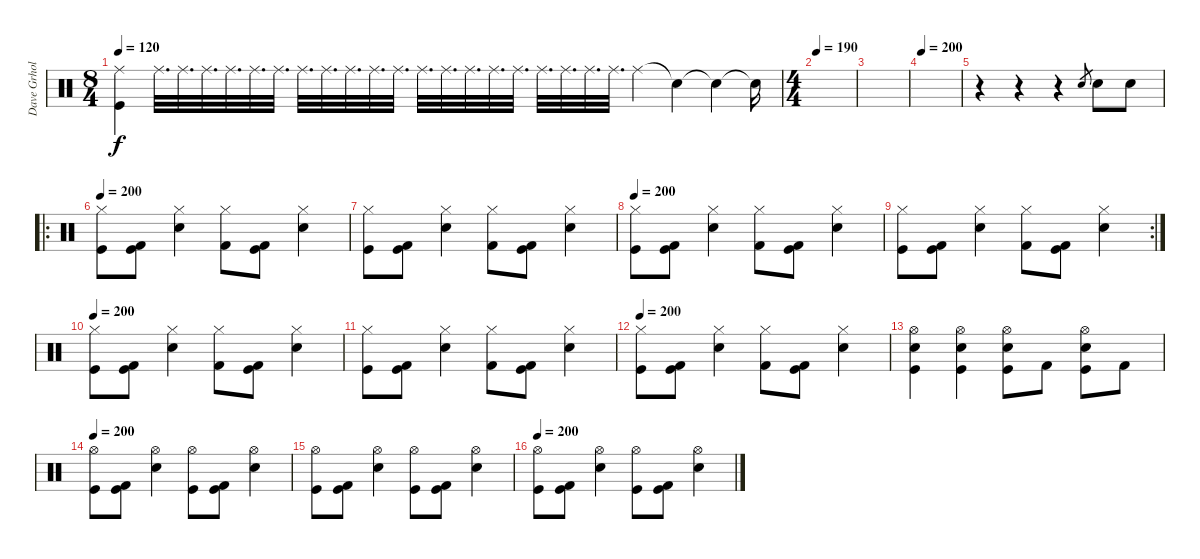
\track ("Dave Grhol" "Dave Grhol") {instrument percussion}
\staff {score}
\articulation defaults
\ts (8 4)
\tempo 120
\clef neutral
\ks c
("Ride (middle)" "Kick (hit)").4{dy f} "Ride (middle)".32{d} "Ride (middle)".32{d} "Ride (middle)".32{d} "Ride (middle)".32{d} "Ride (middle)".32{d} "Ride (middle)".32{d} "Ride (middle)".32{d} "Ride (middle)".32{d} "Ride (middle)".32{d} "Ride (middle)".32{d} "Ride (middle)".32{d} "Ride (middle)".32{d} "Ride (middle)".32{d} "Ride (middle)".32{d} "Ride (middle)".32{d} "Ride (middle)".32{d} "Ride (middle)".32{d} "Ride (middle)".32{d} "Ride (middle)".32{d} "Ride (middle)".32{d} "Ride (middle)".4 "Snare (hit)"{t}.4 "Snare (hit)"{t}.4 "Snare (hit)"{t}.16 |
\ts (4 4)
\tempo 190
|
|
\tempo 200
|
r.4 r.4 r.4 "Electric Snare (hit)".8{gr} "Electric Snare (hit)".8 "Electric Snare (hit)".8 |
\ro
\tempo 200
("Hi-Hat (closed)" "Kick (hit)").8 ("Kick (hit)" "Kick (hit) 2").8 ("Hi-Hat (closed)" "Snare (hit) 2").4 ("Hi-Hat (closed)" "Kick (hit) 2").8 ("Kick (hit)" "Kick (hit) 2").8 ("Hi-Hat (closed)" "Snare (hit) 2").4 |
("Hi-Hat (closed)" "Kick (hit)").8 ("Kick (hit)" "Kick (hit) 2").8 ("Hi-Hat (closed)" "Snare (hit) 2").4 ("Hi-Hat (closed)" "Kick (hit) 2").8 ("Kick (hit)" "Kick (hit) 2").8 ("Hi-Hat (closed)" "Snare (hit) 2").4 |
\tempo 200
("Hi-Hat (closed)" "Kick (hit)").8 ("Kick (hit)" "Kick (hit) 2").8 ("Hi-Hat (closed)" "Snare (hit) 2").4 ("Hi-Hat (closed)" "Kick (hit) 2").8 ("Kick (hit)" "Kick (hit) 2").8 ("Hi-Hat (closed)" "Snare (hit) 2").4 |
\rc 2
("Hi-Hat (closed)" "Kick (hit)").8 ("Kick (hit)" "Kick (hit) 2").8 ("Hi-Hat (closed)" "Snare (hit) 2").4 ("Hi-Hat (closed)" "Kick (hit) 2").8 ("Kick (hit)" "Kick (hit) 2").8 ("Hi-Hat (closed)" "Snare (hit) 2").4 |
\tempo 200
("Hi-Hat (closed)" "Kick (hit)").8 ("Kick (hit)" "Kick (hit) 2").8 ("Hi-Hat (closed)" "Snare (hit) 2").4 ("Hi-Hat (closed)" "Kick (hit) 2").8 ("Kick (hit)" "Kick (hit) 2").8 ("Hi-Hat (closed)" "Snare (hit) 2").4 |
("Hi-Hat (closed)" "Kick (hit)").8 ("Kick (hit)" "Kick (hit) 2").8 ("Hi-Hat (closed)" "Snare (hit) 2").4 ("Hi-Hat (closed)" "Kick (hit) 2").8 ("Kick (hit)" "Kick (hit) 2").8 ("Hi-Hat (closed)" "Snare (hit) 2").4 |
\tempo 200
("Hi-Hat (closed)" "Kick (hit)").8 ("Kick (hit)" "Kick (hit) 2").8 ("Hi-Hat (closed)" "Snare (hit) 2").4 ("Hi-Hat (closed)" "Kick (hit) 2").8 ("Kick (hit)" "Kick (hit) 2").8 ("Hi-Hat (closed)" "Snare (hit) 2").4 |
("Kick (hit)" "Snare (hit) 2" "Hi-Hat (open)").4 ("Kick (hit)" "Snare (hit) 2" "Hi-Hat (open)").4 ("Kick (hit)" "Snare (hit) 2" "Hi-Hat (open)").8 "Kick (hit) 2".8 ("Kick (hit)" "Snare (hit) 2" "Hi-Hat (open)").8 "Kick (hit) 2".8 |
\tempo 200
("Hi-Hat (open)" "Kick (hit)").8 ("Kick (hit)" "Kick (hit) 2").8 ("Hi-Hat (open)" "Snare (hit) 2").4 ("Hi-Hat (open)" "Kick (hit)").8 ("Kick (hit)" "Kick (hit) 2").8 ("Hi-Hat (open)" "Snare (hit) 2").4 |
("Hi-Hat (open)" "Kick (hit)").8 ("Kick (hit)" "Kick (hit) 2").8 ("Hi-Hat (open)" "Snare (hit) 2").4 ("Hi-Hat (open)" "Kick (hit)").8 ("Kick (hit)" "Kick (hit) 2").8 ("Hi-Hat (open)" "Snare (hit) 2").4 |
\tempo 200
("Hi-Hat (open)" "Kick (hit)").8 ("Kick (hit)" "Kick (hit) 2").8 ("Hi-Hat (open)" "Snare (hit) 2").4 ("Hi-Hat (open)" "Kick (hit)").8 ("Kick (hit)" "Kick (hit) 2").8 ("Hi-Hat (open)" "Snare (hit) 2").4
